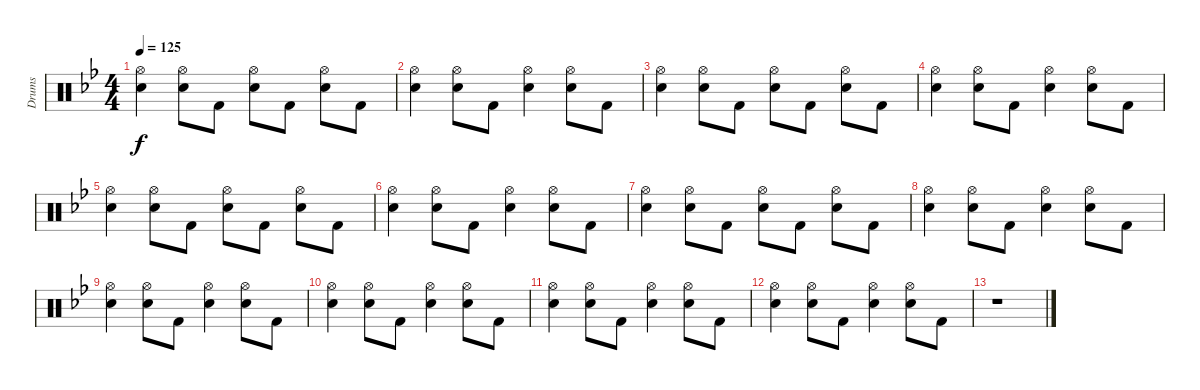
\track ("Drums" "Drums") {instrument percussion}
\staff {score}
\articulation defaults
\ts (4 4)
\tempo 125
\clef neutral
\ks bb
("Hi-Hat (open)" "Electric Snare (hit)").4{dy f} ("Hi-Hat (open)" "Electric Snare (hit)").8 "Kick (hit) 2".8 ("Hi-Hat (open)" "Electric Snare (hit)").8 "Kick (hit) 2".8 ("Hi-Hat (open)" "Electric Snare (hit)").8 "Kick (hit) 2".8 |
("Hi-Hat (open)" "Electric Snare (hit)").4 ("Hi-Hat (open)" "Electric Snare (hit)").8 "Kick (hit) 2".8 ("Hi-Hat (open)" "Electric Snare (hit)").4 ("Hi-Hat (open)" "Electric Snare (hit)").8 "Kick (hit) 2".8 |
("Hi-Hat (open)" "Electric Snare (hit)").4 ("Hi-Hat (open)" "Electric Snare (hit)").8 "Kick (hit) 2".8 ("Hi-Hat (open)" "Electric Snare (hit)").8 "Kick (hit) 2".8 ("Hi-Hat (open)" "Electric Snare (hit)").8 "Kick (hit) 2".8 |
("Hi-Hat (open)" "Electric Snare (hit)").4 ("Hi-Hat (open)" "Electric Snare (hit)").8 "Kick (hit) 2".8 ("Hi-Hat (open)" "Electric Snare (hit)").4 ("Hi-Hat (open)" "Electric Snare (hit)").8 "Kick (hit) 2".8 |
("Hi-Hat (open)" "Electric Snare (hit)").4 ("Hi-Hat (open)" "Electric Snare (hit)").8 "Kick (hit) 2".8 ("Hi-Hat (open)" "Electric Snare (hit)").8 "Kick (hit) 2".8 ("Hi-Hat (open)" "Electric Snare (hit)").8 "Kick (hit) 2".8 |
("Hi-Hat (open)" "Electric Snare (hit)").4 ("Hi-Hat (open)" "Electric Snare (hit)").8 "Kick (hit) 2".8 ("Hi-Hat (open)" "Electric Snare (hit)").4 ("Hi-Hat (open)" "Electric Snare (hit)").8 "Kick (hit) 2".8 |
("Hi-Hat (open)" "Electric Snare (hit)").4 ("Hi-Hat (open)" "Electric Snare (hit)").8 "Kick (hit) 2".8 ("Hi-Hat (open)" "Electric Snare (hit)").8 "Kick (hit) 2".8 ("Hi-Hat (open)" "Electric Snare (hit)").8 "Kick (hit) 2".8 |
("Hi-Hat (open)" "Electric Snare (hit)").4 ("Hi-Hat (open)" "Electric Snare (hit)").8 "Kick (hit) 2".8 ("Hi-Hat (open)" "Electric Snare (hit)").4 ("Hi-Hat (open)" "Electric Snare (hit)").8 "Kick (hit) 2".8 |
("Hi-Hat (open)" "Electric Snare (hit)").4 ("Hi-Hat (open)" "Electric Snare (hit)").8 "Kick (hit) 2".8 ("Hi-Hat (open)" "Electric Snare (hit)").4 ("Hi-Hat (open)" "Electric Snare (hit)").8 "Kick (hit) 2".8 |
("Hi-Hat (open)" "Electric Snare (hit)").4 ("Hi-Hat (open)" "Electric Snare (hit)").8 "Kick (hit) 2".8 ("Hi-Hat (open)" "Electric Snare (hit)").4 ("Hi-Hat (open)" "Electric Snare (hit)").8 "Kick (hit) 2".8 |
("Hi-Hat (open)" "Electric Snare (hit)").4 ("Hi-Hat (open)" "Electric Snare (hit)").8 "Kick (hit) 2".8 ("Hi-Hat (open)" "Electric Snare (hit)").4 ("Hi-Hat (open)" "Electric Snare (hit)").8 "Kick (hit) 2".8 |
("Hi-Hat (open)" "Electric Snare (hit)").4 ("Hi-Hat (open)" "Electric Snare (hit)").8 "Kick (hit) 2".8 ("Hi-Hat (open)" "Electric Snare (hit)").4 ("Hi-Hat (open)" "Electric Snare (hit)").8 "Kick (hit) 2".8 |
r.1
